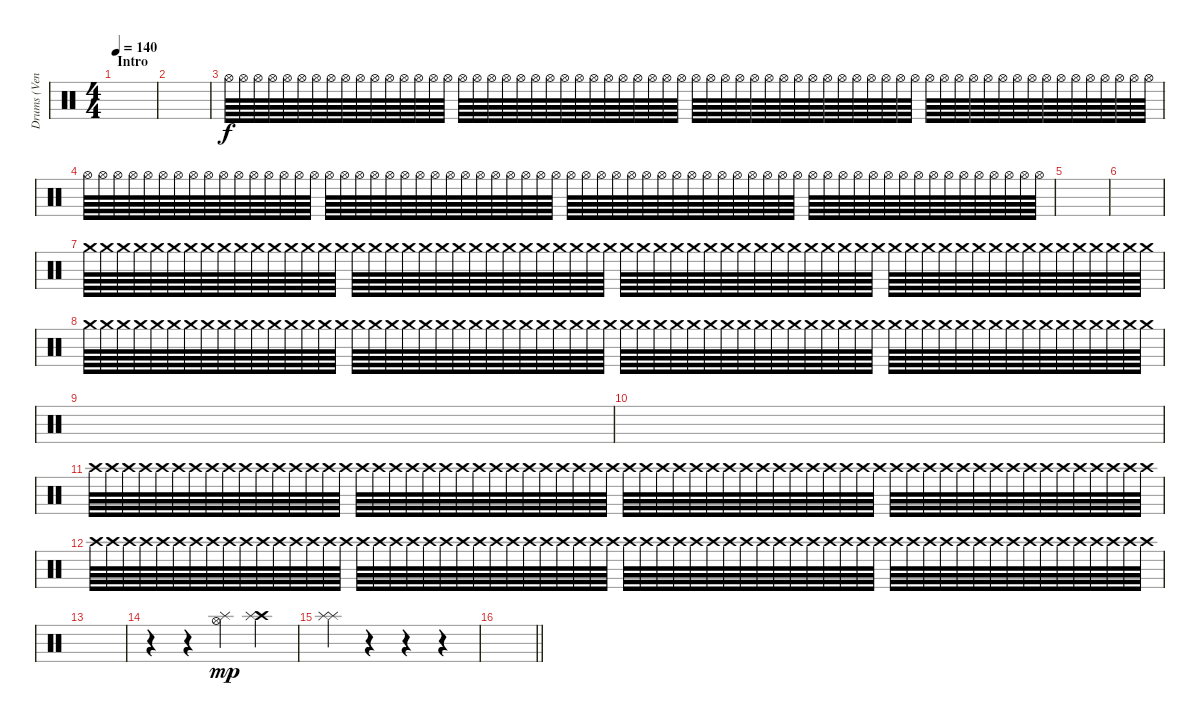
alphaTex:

\track ("Drums (Ventor)" "Drums (Ven") {instrument percussion}
\staff {score}
\articulation defaults
\ts (4 4)
\section ("" "Intro")
\tempo 140
\tempo 118
\tempo 140
\clef neutral
\ks c
|
|
"Hi-Hat (open)".64{volume 0} "Hi-Hat (open)".64{volume 16} "Hi-Hat (open)".64 "Hi-Hat (open)".64 "Hi-Hat (open)".64 "Hi-Hat (open)".64 "Hi-Hat (open)".64 "Hi-Hat (open)".64 "Hi-Hat (open)".64 "Hi-Hat (open)".64 "Hi-Hat (open)".64 "Hi-Hat (open)".64 "Hi-Hat (open)".64 "Hi-Hat (open)".64 "Hi-Hat (open)".64 "Hi-Hat (open)".64 "Hi-Hat (open)".64 "Hi-Hat (open)".64 "Hi-Hat (open)".64 "Hi-Hat (open)".64 "Hi-Hat (open)".64 "Hi-Hat (open)".64 "Hi-Hat (open)".64 "Hi-Hat (open)".64 "Hi-Hat (open)".64 "Hi-Hat (open)".64 "Hi-Hat (open)".64 "Hi-Hat (open)".64 "Hi-Hat (open)".64 "Hi-Hat (open)".64 "Hi-Hat (open)".64 "Hi-Hat (open)".64 "Hi-Hat (open)".64 "Hi-Hat (open)".64 "Hi-Hat (open)".64 "Hi-Hat (open)".64 "Hi-Hat (open)".64 "Hi-Hat (open)".64 "Hi-Hat (open)".64 "Hi-Hat (open)".64 "Hi-Hat (open)".64 "Hi-Hat (open)".64 "Hi-Hat (open)".64 "Hi-Hat (open)".64 "Hi-Hat (open)".64 "Hi-Hat (open)".64 "Hi-Hat (open)".64 "Hi-Hat (open)".64 "Hi-Hat (open)".64 "Hi-Hat (open)".64 "Hi-Hat (open)".64 "Hi-Hat (open)".64 "Hi-Hat (open)".64 "Hi-Hat (open)".64 "Hi-Hat (open)".64 "Hi-Hat (open)".64 "Hi-Hat (open)".64 "Hi-Hat (open)".64 "Hi-Hat (open)".64 "Hi-Hat (open)".64 "Hi-Hat (open)".64 "Hi-Hat (open)".64 "Hi-Hat (open)".64 "Hi-Hat (open)".64 |
"Hi-Hat (open)".64 "Hi-Hat (open)".64 "Hi-Hat (open)".64 "Hi-Hat (open)".64 "Hi-Hat (open)".64 "Hi-Hat (open)".64 "Hi-Hat (open)".64 "Hi-Hat (open)".64 "Hi-Hat (open)".64 "Hi-Hat (open)".64 "Hi-Hat (open)".64 "Hi-Hat (open)".64 "Hi-Hat (open)".64 "Hi-Hat (open)".64 "Hi-Hat (open)".64 "Hi-Hat (open)".64 "Hi-Hat (open)".64 "Hi-Hat (open)".64 "Hi-Hat (open)".64 "Hi-Hat (open)".64 "Hi-Hat (open)".64 "Hi-Hat (open)".64 "Hi-Hat (open)".64 "Hi-Hat (open)".64 "Hi-Hat (open)".64 "Hi-Hat (open)".64 "Hi-Hat (open)".64 "Hi-Hat (open)".64 "Hi-Hat (open)".64 "Hi-Hat (open)".64 "Hi-Hat (open)".64 "Hi-Hat (open)".64 "Hi-Hat (open)".64 "Hi-Hat (open)".64 "Hi-Hat (open)".64 "Hi-Hat (open)".64 "Hi-Hat (open)".64 "Hi-Hat (open)".64 "Hi-Hat (open)".64 "Hi-Hat (open)".64 "Hi-Hat (open)".64 "Hi-Hat (open)".64 "Hi-Hat (open)".64 "Hi-Hat (open)".64 "Hi-Hat (open)".64 "Hi-Hat (open)".64 "Hi-Hat (open)".64 "Hi-Hat (open)".64 "Hi-Hat (open)".64 "Hi-Hat (open)".64 "Hi-Hat (open)".64 "Hi-Hat (open)".64 "Hi-Hat (open)".64 "Hi-Hat (open)".64 "Hi-Hat (open)".64 "Hi-Hat (open)".64 "Hi-Hat (open)".64 "Hi-Hat (open)".64 "Hi-Hat (open)".64 "Hi-Hat (open)".64 "Hi-Hat (open)".64 "Hi-Hat (open)".64 "Hi-Hat (open)".64 "Hi-Hat (open)".64 |
|
|
"Crash medium (hit)".64{volume 0} "Crash medium (hit)".64{volume 16} "Crash medium (hit)".64 "Crash medium (hit)".64 "Crash medium (hit)".64 "Crash medium (hit)".64 "Crash medium (hit)".64 "Crash medium (hit)".64 "Crash medium (hit)".64 "Crash medium (hit)".64 "Crash medium (hit)".64 "Crash medium (hit)".64 "Crash medium (hit)".64 "Crash medium (hit)".64 "Crash medium (hit)".64 "Crash medium (hit)".64 "Crash medium (hit)".64 "Crash medium (hit)".64 "Crash medium (hit)".64 "Crash medium (hit)".64 "Crash medium (hit)".64 "Crash medium (hit)".64 "Crash medium (hit)".64 "Crash medium (hit)".64 "Crash medium (hit)".64 "Crash medium (hit)".64 "Crash medium (hit)".64 "Crash medium (hit)".64 "Crash medium (hit)".64 "Crash medium (hit)".64 "Crash medium (hit)".64 "Crash medium (hit)".64 "Crash medium (hit)".64 "Crash medium (hit)".64 "Crash medium (hit)".64 "Crash medium (hit)".64 "Crash medium (hit)".64 "Crash medium (hit)".64 "Crash medium (hit)".64 "Crash medium (hit)".64 "Crash medium (hit)".64 "Crash medium (hit)".64 "Crash medium (hit)".64 "Crash medium (hit)".64 "Crash medium (hit)".64 "Crash medium (hit)".64 "Crash medium (hit)".64 "Crash medium (hit)".64 "Crash medium (hit)".64 "Crash medium (hit)".64 "Crash medium (hit)".64 "Crash medium (hit)".64 "Crash medium (hit)".64 "Crash medium (hit)".64 "Crash medium (hit)".64 "Crash medium (hit)".64 "Crash medium (hit)".64 "Crash medium (hit)".64 "Crash medium (hit)".64 "Crash medium (hit)".64 "Crash medium (hit)".64 "Crash medium (hit)".64 "Crash medium (hit)".64 "Crash medium (hit)".64 |
"Crash medium (hit)".64 "Crash medium (hit)".64 "Crash medium (hit)".64 "Crash medium (hit)".64 "Crash medium (hit)".64 "Crash medium (hit)".64 "Crash medium (hit)".64 "Crash medium (hit)".64 "Crash medium (hit)".64 "Crash medium (hit)".64 "Crash medium (hit)".64 "Crash medium (hit)".64 "Crash medium (hit)".64 "Crash medium (hit)".64 "Crash medium (hit)".64 "Crash medium (hit)".64 "Crash medium (hit)".64 "Crash medium (hit)".64 "Crash medium (hit)".64 "Crash medium (hit)".64 "Crash medium (hit)".64 "Crash medium (hit)".64 "Crash medium (hit)".64 "Crash medium (hit)".64 "Crash medium (hit)".64 "Crash medium (hit)".64 "Crash medium (hit)".64 "Crash medium (hit)".64 "Crash medium (hit)".64 "Crash medium (hit)".64 "Crash medium (hit)".64 "Crash medium (hit)".64 "Crash medium (hit)".64 "Crash medium (hit)".64 "Crash medium (hit)".64 "Crash medium (hit)".64 "Crash medium (hit)".64 "Crash medium (hit)".64 "Crash medium (hit)".64 "Crash medium (hit)".64 "Crash medium (hit)".64 "Crash medium (hit)".64 "Crash medium (hit)".64 "Crash medium (hit)".64 "Crash medium (hit)".64 "Crash medium (hit)".64 "Crash medium (hit)".64 "Crash medium (hit)".64 "Crash medium (hit)".64 "Crash medium (hit)".64 "Crash medium (hit)".64 "Crash medium (hit)".64 "Crash medium (hit)".64 "Crash medium (hit)".64 "Crash medium (hit)".64 "Crash medium (hit)".64 "Crash medium (hit)".64 "Crash medium (hit)".64 "Crash medium (hit)".64 "Crash medium (hit)".64 "Crash medium (hit)".64 "Crash medium (hit)".64 "Crash medium (hit)".64 "Crash medium (hit)".64 |
|
|
"Crash high (hit)".64{volume 0} "Crash high (hit)".64{volume 16} "Crash high (hit)".64 "Crash high (hit)".64 "Crash high (hit)".64 "Crash high (hit)".64 "Crash high (hit)".64 "Crash high (hit)".64 "Crash high (hit)".64 "Crash high (hit)".64 "Crash high (hit)".64 "Crash high (hit)".64 "Crash high (hit)".64 "Crash high (hit)".64 "Crash high (hit)".64 "Crash high (hit)".64 "Crash high (hit)".64 "Crash high (hit)".64 "Crash high (hit)".64 "Crash high (hit)".64 "Crash high (hit)".64 "Crash high (hit)".64 "Crash high (hit)".64 "Crash high (hit)".64 "Crash high (hit)".64 "Crash high (hit)".64 "Crash high (hit)".64 "Crash high (hit)".64 "Crash high (hit)".64 "Crash high (hit)".64 "Crash high (hit)".64 "Crash high (hit)".64 "Crash high (hit)".64 "Crash high (hit)".64 "Crash high (hit)".64 "Crash high (hit)".64 "Crash high (hit)".64 "Crash high (hit)".64 "Crash high (hit)".64 "Crash high (hit)".64 "Crash high (hit)".64 "Crash high (hit)".64 "Crash high (hit)".64 "Crash high (hit)".64 "Crash high (hit)".64 "Crash high (hit)".64 "Crash high (hit)".64 "Crash high (hit)".64 "Crash high (hit)".64 "Crash high (hit)".64 "Crash high (hit)".64 "Crash high (hit)".64 "Crash high (hit)".64 "Crash high (hit)".64 "Crash high (hit)".64 "Crash high (hit)".64 "Crash high (hit)".64 "Crash high (hit)".64 "Crash high (hit)".64 "Crash high (hit)".64 "Crash high (hit)".64 "Crash high (hit)".64 "Crash high (hit)".64 "Crash high (hit)".64 |
"Crash high (hit)".64 "Crash high (hit)".64 "Crash high (hit)".64 "Crash high (hit)".64 "Crash high (hit)".64 "Crash high (hit)".64 "Crash high (hit)".64 "Crash high (hit)".64 "Crash high (hit)".64 "Crash high (hit)".64 "Crash high (hit)".64 "Crash high (hit)".64 "Crash high (hit)".64 "Crash high (hit)".64 "Crash high (hit)".64 "Crash high (hit)".64 "Crash high (hit)".64 "Crash high (hit)".64 "Crash high (hit)".64 "Crash high (hit)".64 "Crash high (hit)".64 "Crash high (hit)".64 "Crash high (hit)".64 "Crash high (hit)".64 "Crash high (hit)".64 "Crash high (hit)".64 "Crash high (hit)".64 "Crash high (hit)".64 "Crash high (hit)".64 "Crash high (hit)".64 "Crash high (hit)".64 "Crash high (hit)".64 "Crash high (hit)".64 "Crash high (hit)".64 "Crash high (hit)".64 "Crash high (hit)".64 "Crash high (hit)".64 "Crash high (hit)".64 "Crash high (hit)".64 "Crash high (hit)".64 "Crash high (hit)".64 "Crash high (hit)".64 "Crash high (hit)".64 "Crash high (hit)".64 "Crash high (hit)".64 "Crash high (hit)".64 "Crash high (hit)".64 "Crash high (hit)".64 "Crash high (hit)".64 "Crash high (hit)".64 "Crash high (hit)".64 "Crash high (hit)".64 "Crash high (hit)".64 "Crash high (hit)".64 "Crash high (hit)".64 "Crash high (hit)".64 "Crash high (hit)".64 "Crash high (hit)".64 "Crash high (hit)".64 "Crash high (hit)".64 "Crash high (hit)".64 "Crash high (hit)".64 "Crash high (hit)".64 "Crash high (hit)".64 |
|
r.4 r.4 ("Hi-Hat (open)" "Splash (hit)").4{dy mp} ("Crash high (hit)" "Splash (hit)").4 |
("Splash (hit)" "Splash (hit)").4 r.4 r.4 r.4 |
\barLineRight lightlight
